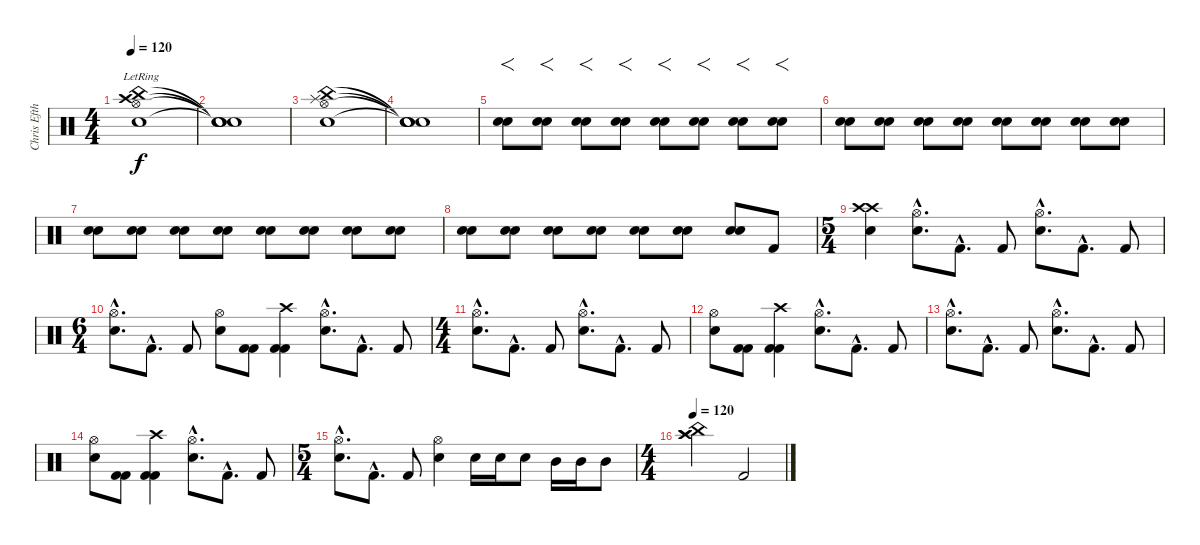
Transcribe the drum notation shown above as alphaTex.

\track ("Chris Efthimiadis" "Chris Efth") {instrument percussion}
\staff {score}
\articulation defaults
\ts (4 4)
\tempo 120
\clef neutral
\ks c
("China (hit)"{lr} "Hi-Hat (open)"{lr} "Crash high (hit)"{lr} "Snare (hit) 2"{lr}).1{dy f} |
("Snare (hit)"{t} "Snare (hit)"{t} "Snare (hit)"{t} "Snare (hit)"{t}).1 |
("China (hit)" "Hi-Hat (open)" "Snare (hit) 2" "Splash (hit)").1 |
("Snare (hit)"{t} "Snare (hit)"{t} "Snare (hit)"{t} "Snare (hit)"{t}).1 |
("Snare (hit) 2" "Snare (hit) 2").8{f} ("Snare (hit) 2" "Snare (hit) 2").8{f} ("Snare (hit) 2" "Snare (hit) 2").8{f} ("Snare (hit) 2" "Snare (hit) 2").8{f} ("Snare (hit) 2" "Snare (hit) 2").8{f} ("Snare (hit) 2" "Snare (hit) 2").8{f} ("Snare (hit) 2" "Snare (hit) 2").8{f} ("Snare (hit) 2" "Snare (hit) 2").8{f} |
("Snare (hit) 2" "Snare (hit) 2").8{volume 9} ("Snare (hit) 2" "Snare (hit) 2").8 ("Snare (hit) 2" "Snare (hit) 2").8 ("Snare (hit) 2" "Snare (hit) 2").8 ("Snare (hit) 2" "Snare (hit) 2").8 ("Snare (hit) 2" "Snare (hit) 2").8 ("Snare (hit) 2" "Snare (hit) 2").8 ("Snare (hit) 2" "Snare (hit) 2").8 |
("Snare (hit) 2" "Snare (hit) 2").8{volume 13} ("Snare (hit) 2" "Snare (hit) 2").8 ("Snare (hit) 2" "Snare (hit) 2").8 ("Snare (hit) 2" "Snare (hit) 2").8 ("Snare (hit) 2" "Snare (hit) 2").8 ("Snare (hit) 2" "Snare (hit) 2").8 ("Snare (hit) 2" "Snare (hit) 2").8 ("Snare (hit) 2" "Snare (hit) 2").8 |
("Snare (hit) 2" "Snare (hit) 2").8{volume 16} ("Snare (hit) 2" "Snare (hit) 2").8 ("Snare (hit) 2" "Snare (hit) 2").8 ("Snare (hit) 2" "Snare (hit) 2").8 ("Snare (hit) 2" "Snare (hit) 2").8 ("Snare (hit) 2" "Snare (hit) 2").8 ("Snare (hit) 2" "Snare (hit) 2").8 "Kick (hit) 2".8 |
\ts (5 4)
("Crash high (hit)" "Crash high (hit)" "Snare (hit) 2").4{volume 13} ("Hi-Hat (open)"{hac} "Snare (hit) 2"{hac}).8{d} "Kick (hit) 2"{hac}.8{d} "Kick (hit) 2".8 ("Hi-Hat (open)"{hac} "Snare (hit) 2"{hac}).8{d} "Kick (hit) 2"{hac}.8{d} "Kick (hit) 2".8 |
\ts (6 4)
("Hi-Hat (open)"{hac} "Snare (hit) 2"{hac}).8{d} "Kick (hit) 2"{hac}.8{d} "Kick (hit) 2".8 ("Hi-Hat (open)" "Snare (hit) 2").8 ("Kick (hit) 2" "Kick (hit) 2").8 ("Crash high (hit)" "Kick (hit) 2" "Kick (hit) 2").4 ("Hi-Hat (open)"{hac} "Snare (hit) 2"{hac}).8{d} "Kick (hit) 2"{hac}.8{d} "Kick (hit) 2".8 |
\ts (4 4)
("Hi-Hat (open)"{hac} "Snare (hit) 2"{hac}).8{d} "Kick (hit) 2"{hac}.8{d} "Kick (hit) 2".8 ("Snare (hit) 2"{hac} "Hi-Hat (open)"{hac}).8{d} "Kick (hit) 2"{hac}.8{d} "Kick (hit) 2".8 |
("Hi-Hat (open)" "Snare (hit) 2").8 ("Kick (hit) 2" "Kick (hit) 2").8 ("Crash high (hit)" "Kick (hit) 2" "Kick (hit) 2").4 ("Hi-Hat (open)"{hac} "Snare (hit) 2"{hac}).8{d} "Kick (hit) 2"{hac}.8{d} "Kick (hit) 2".8 |
("Hi-Hat (open)"{hac} "Snare (hit) 2"{hac}).8{d} "Kick (hit) 2"{hac}.8{d} "Kick (hit) 2".8 ("Snare (hit) 2"{hac} "Hi-Hat (open)"{hac}).8{d} "Kick (hit) 2"{hac}.8{d} "Kick (hit) 2".8 |
("Hi-Hat (open)" "Snare (hit) 2").8 ("Kick (hit) 2" "Kick (hit) 2").8 ("Crash high (hit)" "Kick (hit) 2" "Kick (hit) 2").4 ("Hi-Hat (open)"{hac} "Snare (hit) 2"{hac}).8{d} "Kick (hit) 2"{hac}.8{d} "Kick (hit) 2".8 |
\ts (5 4)
("Hi-Hat (open)"{hac} "Snare (hit) 2"{hac}).8{d} "Kick (hit) 2"{hac}.8{d} "Kick (hit) 2".8 ("Snare (hit) 2" "Hi-Hat (open)").4 "Snare (hit) 2".16 "Snare (hit) 2".16 "Snare (hit) 2".8 "Mid Tom (hit)".16 "Mid Tom (hit)".16 "Mid Tom (hit)".8 |
\ts (4 4)
\tempo 63
\tempo 120
("China (hit)" "Crash high (hit)" "Crash high (hit)").2 "Kick (hit) 2".2
